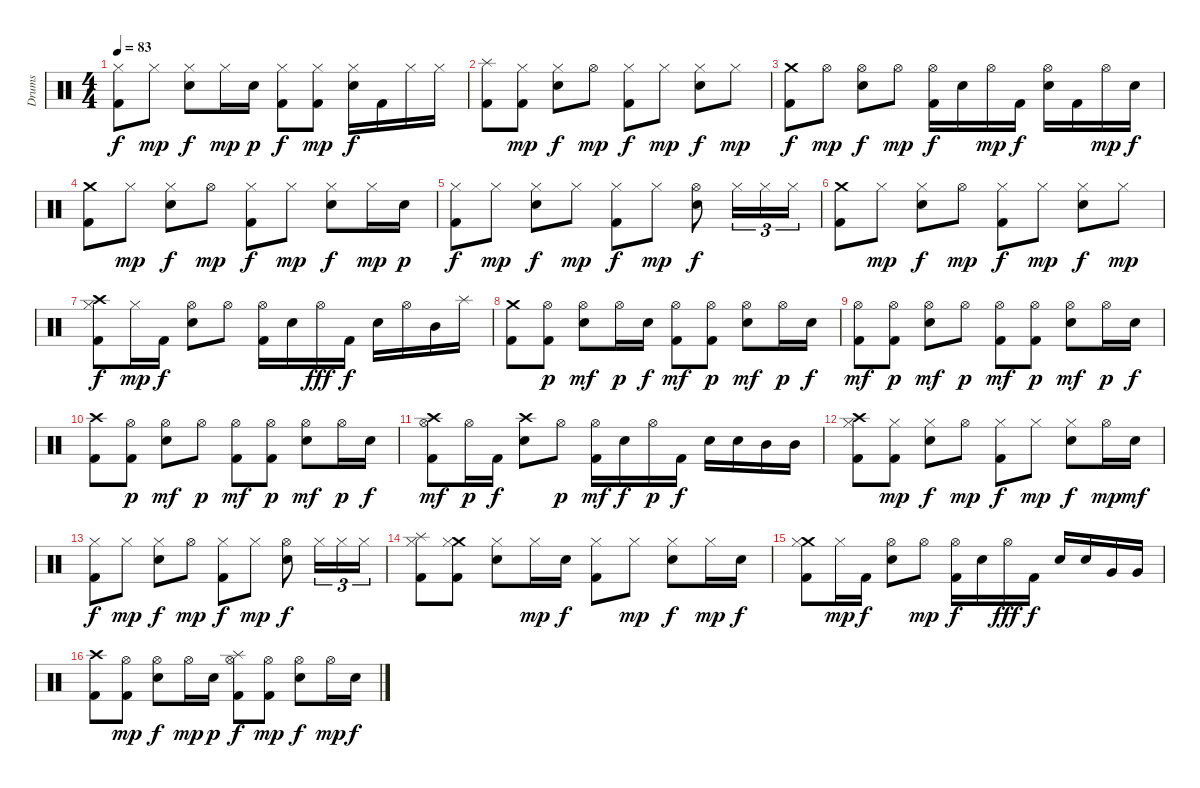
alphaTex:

\track ("Drums" "Drums") {instrument percussion}
\staff {score}
\articulation defaults
\ts (4 4)
\tempo 83
\clef neutral
\ks c
("Hi-Hat (closed)" "Kick (hit) 2").8{dy f} "Hi-Hat (closed)".8{dy mp} ("Hi-Hat (closed)" "Electric Snare (hit)").8{dy f} "Hi-Hat (closed)".16{dy mp} "Electric Snare (hit)".16{dy p} ("Hi-Hat (closed)" "Kick (hit) 2").8{dy f} ("Hi-Hat (closed)" "Kick (hit) 2").8{dy mp} ("Hi-Hat (closed)" "Electric Snare (hit)").16{dy f} "Kick (hit) 2".16 "Hi-Hat (closed)".16 "Hi-Hat (closed)".16 |
("Splash (hit)" "Kick (hit) 2").8 ("Hi-Hat (closed)" "Kick (hit) 2").8{dy mp} ("Hi-Hat (closed)" "Electric Snare (hit)").8{dy f} "Hi-Hat (open)".8{dy mp} ("Hi-Hat (closed)" "Kick (hit) 2").8{dy f} "Hi-Hat (closed)".8{dy mp} ("Hi-Hat (closed)" "Electric Snare (hit)").8{dy f} "Hi-Hat (closed)".8{dy mp} |
("Crash medium (hit)" "Kick (hit) 2").8{dy f} "Hi-Hat (open)".8{dy mp} ("Hi-Hat (open)" "Electric Snare (hit)").8{dy f} "Hi-Hat (open)".8{dy mp} ("Hi-Hat (open)" "Kick (hit) 2").16{dy f} "Electric Snare (hit)".16 "Hi-Hat (open)".16{dy mp} "Kick (hit) 2".16{dy f} ("Hi-Hat (open)" "Electric Snare (hit)").16 "Kick (hit) 2".16 "Hi-Hat (open)".16{dy mp} "Electric Snare (hit)".16{dy f} |
("Crash medium (hit)" "Kick (hit) 2").8 "Hi-Hat (closed)".8{dy mp} ("Hi-Hat (closed)" "Electric Snare (hit)").8{dy f} "Hi-Hat (open)".8{dy mp} ("Hi-Hat (closed)" "Kick (hit) 2").8{dy f} "Hi-Hat (closed)".8{dy mp} ("Hi-Hat (closed)" "Electric Snare (hit)").8{dy f} "Hi-Hat (closed)".16{dy mp} "Electric Snare (hit)".16{dy p} |
("Hi-Hat (closed)" "Kick (hit) 2").8{dy f} "Hi-Hat (closed)".8{dy mp} ("Hi-Hat (closed)" "Electric Snare (hit)").8{dy f} "Hi-Hat (closed)".8{dy mp} ("Hi-Hat (closed)" "Kick (hit) 2").8{dy f} "Hi-Hat (closed)".8{dy mp} ("Hi-Hat (open)" "Electric Snare (hit)").8{dy f} "Hi-Hat (closed)".16{tu (3 2)} "Hi-Hat (closed)".16{tu (3 2)} "Hi-Hat (closed)".16{tu (3 2)} |
("Crash medium (hit)" "Kick (hit) 2").8 "Hi-Hat (closed)".8{dy mp} ("Hi-Hat (closed)" "Electric Snare (hit)").8{dy f} "Hi-Hat (open)".8{dy mp} ("Hi-Hat (closed)" "Kick (hit) 2").8{dy f} "Hi-Hat (closed)".8{dy mp} ("Hi-Hat (closed)" "Electric Snare (hit)").8{dy f} "Hi-Hat (closed)".8{dy mp} |
("Crash high (hit)" "Hi-Hat (closed)" "Kick (hit) 2").8{dy f} "Hi-Hat (closed)".16{dy mp} "Kick (hit) 2".16{dy f} ("Hi-Hat (open)" "Electric Snare (hit)").8 "Hi-Hat (open)".8 ("Hi-Hat (open)" "Kick (hit) 2").16 "Electric Snare (hit)".16 "Hi-Hat (open)".16{dy fff} "Kick (hit) 2".16{dy f} "Electric Snare (hit)".16 "Hi-Hat (open)".16 "Mid Tom (hit)".16 "Splash (hit)".16 |
("Crash medium (hit)" "Kick (hit) 2").8 ("Hi-Hat (open)" "Kick (hit) 2").8{dy p} ("Hi-Hat (open)" "Electric Snare (hit)").8{dy mf} "Hi-Hat (open)".16{dy p} "Electric Snare (hit)".16{dy f} ("Hi-Hat (open)" "Kick (hit) 2").8{dy mf} ("Hi-Hat (open)" "Kick (hit) 2").8{dy p} ("Hi-Hat (open)" "Electric Snare (hit)").8{dy mf} "Hi-Hat (open)".16{dy p} "Electric Snare (hit)".16{dy f} |
("Hi-Hat (open)" "Kick (hit) 2").8{dy mf} ("Hi-Hat (open)" "Kick (hit) 2").8{dy p} ("Hi-Hat (open)" "Electric Snare (hit)").8{dy mf} "Hi-Hat (open)".8{dy p} ("Hi-Hat (open)" "Kick (hit) 2").8{dy mf} ("Hi-Hat (open)" "Kick (hit) 2").8{dy p} ("Hi-Hat (open)" "Electric Snare (hit)").8{dy mf} "Hi-Hat (open)".16{dy p} "Electric Snare (hit)".16{dy f} |
("Crash high (hit)" "Kick (hit) 2").8 ("Hi-Hat (open)" "Kick (hit) 2").8{dy p} ("Hi-Hat (open)" "Electric Snare (hit)").8{dy mf} "Hi-Hat (open)".8{dy p} ("Hi-Hat (open)" "Kick (hit) 2").8{dy mf} ("Hi-Hat (open)" "Kick (hit) 2").8{dy p} ("Hi-Hat (open)" "Electric Snare (hit)").8{dy mf} "Hi-Hat (open)".16{dy p} "Electric Snare (hit)".16{dy f} |
("Crash high (hit)" "Hi-Hat (open)" "Kick (hit) 2").8{dy mf} "Hi-Hat (open)".16{dy p} "Kick (hit) 2".16{dy f} ("Crash high (hit)" "Electric Snare (hit)").8 "Hi-Hat (open)".8{dy p} ("Hi-Hat (open)" "Kick (hit) 2").16{dy mf} "Electric Snare (hit)".16{dy f} "Hi-Hat (open)".16{dy p} "Kick (hit) 2".16{dy f} "Electric Snare (hit)".16 "Electric Snare (hit)".16 "Mid Tom (hit)".16 "Mid Tom (hit)".16 |
("Crash high (hit)" "Hi-Hat (closed)" "Kick (hit) 2").8 ("Hi-Hat (closed)" "Kick (hit) 2").8{dy mp} ("Hi-Hat (closed)" "Electric Snare (hit)").8{dy f} "Hi-Hat (open)".8{dy mp} ("Hi-Hat (closed)" "Kick (hit) 2").8{dy f} "Hi-Hat (closed)".8{dy mp} ("Hi-Hat (closed)" "Electric Snare (hit)").8{dy f} "Hi-Hat (open)".16{dy mp} "Electric Snare (hit)".16{dy mf} |
("Hi-Hat (closed)" "Kick (hit) 2").8{dy f} "Hi-Hat (closed)".8{dy mp} ("Hi-Hat (closed)" "Electric Snare (hit)").8{dy f} "Hi-Hat (open)".8{dy mp} ("Hi-Hat (closed)" "Kick (hit) 2").8{dy f} "Hi-Hat (closed)".8{dy mp} ("Hi-Hat (open)" "Electric Snare (hit)").8{dy f} "Hi-Hat (closed)".16{tu (3 2)} "Hi-Hat (closed)".16{tu (3 2)} "Hi-Hat (closed)".16{tu (3 2)} |
("Splash (hit)" "Hi-Hat (closed)" "Kick (hit) 2").8 ("Crash medium (hit)" "Hi-Hat (closed)" "Kick (hit) 2").8 ("Hi-Hat (closed)" "Electric Snare (hit)").8 "Hi-Hat (closed)".16{dy mp} "Electric Snare (hit)".16{dy f} ("Hi-Hat (closed)" "Kick (hit) 2").8 "Hi-Hat (closed)".8{dy mp} ("Hi-Hat (closed)" "Electric Snare (hit)").8{dy f} "Hi-Hat (closed)".16{dy mp} "Electric Snare (hit)".16{dy f} |
("Crash medium (hit)" "Hi-Hat (closed)" "Kick (hit) 2").8 "Hi-Hat (closed)".16{dy mp} "Kick (hit) 2".16{dy f} ("Hi-Hat (open)" "Electric Snare (hit)").8 "Hi-Hat (open)".8{dy mp} ("Hi-Hat (open)" "Kick (hit) 2").16{dy f} "Electric Snare (hit)".16 "Hi-Hat (open)".16{dy fff} "Kick (hit) 2".16{dy f} "Electric Snare (hit)".16 "Electric Snare (hit)".16 "Very Low Tom (hit)".16 "Very Low Tom (hit)".16 |
("Crash high (hit)" "Kick (hit) 2").8 ("Hi-Hat (open)" "Kick (hit) 2").8{dy mp} ("Hi-Hat (open)" "Electric Snare (hit)").8{dy f} "Hi-Hat (open)".16{dy mp} "Electric Snare (hit)".16{dy p} ("Splash (hit)" "Hi-Hat (open)" "Kick (hit) 2").8{dy f} ("Hi-Hat (open)" "Kick (hit) 2").8{dy mp} ("Hi-Hat (open)" "Electric Snare (hit)").8{dy f} "Hi-Hat (open)".16{dy mp} "Electric Snare (hit)".16{dy f}
